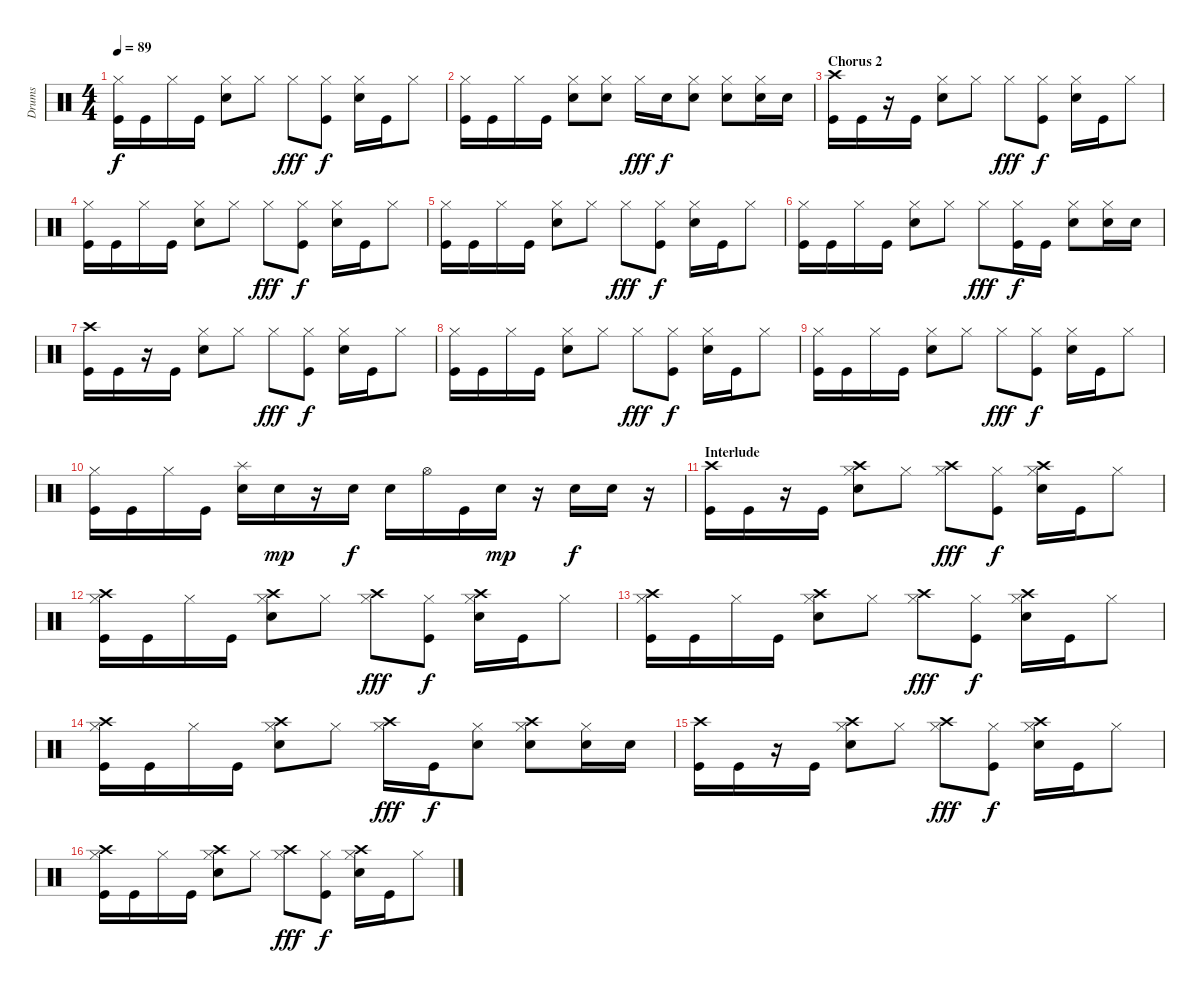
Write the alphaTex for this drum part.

\track ("Drums" "Drums") {instrument percussion}
\staff {score}
\articulation defaults
\ts (4 4)
\tempo 89
\clef neutral
\ks c
("Hi-Hat (closed)" "Kick (hit)").16{dy f} "Kick (hit)".16 "Hi-Hat (closed)".16 "Kick (hit)".16 ("Hi-Hat (closed)" "Snare (hit) 2").8 "Hi-Hat (closed)".8 "Hi-Hat (closed)".8{dy fff} ("Hi-Hat (closed)" "Kick (hit)").8{dy f} ("Hi-Hat (closed)" "Snare (hit) 2").16 "Kick (hit)".16 "Hi-Hat (closed)".8 |
("Hi-Hat (closed)" "Kick (hit)").16 "Kick (hit)".16 "Hi-Hat (closed)".16 "Kick (hit)".16 ("Hi-Hat (closed)" "Snare (hit) 2").8 ("Hi-Hat (closed)" "Snare (hit) 2").8 "Hi-Hat (closed)".16{dy fff} "Snare (hit) 2".16{dy f} ("Hi-Hat (closed)" "Snare (hit) 2").8 ("Hi-Hat (closed)" "Snare (hit) 2").8 ("Hi-Hat (closed)" "Snare (hit) 2").16 "Snare (hit) 2".16 |
\section ("" "Chorus 2")
("Crash high (hit)" "Kick (hit)").16 "Kick (hit)".16 r.16 "Kick (hit)".16 ("Hi-Hat (closed)" "Snare (hit) 2").8 "Hi-Hat (closed)".8 "Hi-Hat (closed)".8{dy fff} ("Hi-Hat (closed)" "Kick (hit)").8{dy f} ("Hi-Hat (closed)" "Snare (hit) 2").16 "Kick (hit)".16 "Hi-Hat (closed)".8 |
("Hi-Hat (closed)" "Kick (hit)").16 "Kick (hit)".16 "Hi-Hat (closed)".16 "Kick (hit)".16 ("Hi-Hat (closed)" "Snare (hit) 2").8 "Hi-Hat (closed)".8 "Hi-Hat (closed)".8{dy fff} ("Hi-Hat (closed)" "Kick (hit)").8{dy f} ("Hi-Hat (closed)" "Snare (hit) 2").16 "Kick (hit)".16 "Hi-Hat (closed)".8 |
("Hi-Hat (closed)" "Kick (hit)").16 "Kick (hit)".16 "Hi-Hat (closed)".16 "Kick (hit)".16 ("Hi-Hat (closed)" "Snare (hit) 2").8 "Hi-Hat (closed)".8 "Hi-Hat (closed)".8{dy fff} ("Hi-Hat (closed)" "Kick (hit)").8{dy f} ("Hi-Hat (closed)" "Snare (hit) 2").16 "Kick (hit)".16 "Hi-Hat (closed)".8 |
("Hi-Hat (closed)" "Kick (hit)").16 "Kick (hit)".16 "Hi-Hat (closed)".16 "Kick (hit)".16 ("Hi-Hat (closed)" "Snare (hit) 2").8 "Hi-Hat (closed)".8 "Hi-Hat (closed)".8{dy fff} ("Hi-Hat (closed)" "Kick (hit)").16{dy f} "Kick (hit)".16 ("Hi-Hat (closed)" "Snare (hit) 2").8 ("Hi-Hat (closed)" "Snare (hit) 2").16 "Snare (hit) 2".16 |
("Crash high (hit)" "Kick (hit)").16 "Kick (hit)".16 r.16 "Kick (hit)".16 ("Hi-Hat (closed)" "Snare (hit) 2").8 "Hi-Hat (closed)".8 "Hi-Hat (closed)".8{dy fff} ("Hi-Hat (closed)" "Kick (hit)").8{dy f} ("Hi-Hat (closed)" "Snare (hit) 2").16 "Kick (hit)".16 "Hi-Hat (closed)".8 |
("Hi-Hat (closed)" "Kick (hit)").16 "Kick (hit)".16 "Hi-Hat (closed)".16 "Kick (hit)".16 ("Hi-Hat (closed)" "Snare (hit) 2").8 "Hi-Hat (closed)".8 "Hi-Hat (closed)".8{dy fff} ("Hi-Hat (closed)" "Kick (hit)").8{dy f} ("Hi-Hat (closed)" "Snare (hit) 2").16 "Kick (hit)".16 "Hi-Hat (closed)".8 |
("Hi-Hat (closed)" "Kick (hit)").16 "Kick (hit)".16 "Hi-Hat (closed)".16 "Kick (hit)".16 ("Hi-Hat (closed)" "Snare (hit) 2").8 "Hi-Hat (closed)".8 "Hi-Hat (closed)".8{dy fff} ("Hi-Hat (closed)" "Kick (hit)").8{dy f} ("Hi-Hat (closed)" "Snare (hit) 2").16 "Kick (hit)".16 "Hi-Hat (closed)".8 |
("Hi-Hat (closed)" "Kick (hit)").16 "Kick (hit)".16 "Hi-Hat (closed)".16 "Kick (hit)".16 ("Splash (hit)" "Snare (hit) 2").16 "Snare (hit) 2".16{dy mp} r.16 "Snare (hit) 2".16{dy f} "Snare (hit) 2".16 "Hi-Hat (open)".16 "Kick (hit)".16 "Snare (hit) 2".16{dy mp} r.16 "Snare (hit) 2".16{dy f} "Snare (hit) 2".16 r.16 |
\section ("" "Interlude")
("Crash high (hit)" "Kick (hit)").16 "Kick (hit)".16 r.16 "Kick (hit)".16 ("Hi-Hat (closed)" "Crash high (hit)" "Snare (hit) 2").8 "Hi-Hat (closed)".8 ("Hi-Hat (closed)" "Crash high (hit)").8{dy fff} ("Hi-Hat (closed)" "Kick (hit)").8{dy f} ("Hi-Hat (closed)" "Crash high (hit)" "Snare (hit) 2").16 "Kick (hit)".16 "Hi-Hat (closed)".8 |
("Hi-Hat (closed)" "Crash high (hit)" "Kick (hit)").16 "Kick (hit)".16 "Hi-Hat (closed)".16 "Kick (hit)".16 ("Hi-Hat (closed)" "Crash high (hit)" "Snare (hit) 2").8 "Hi-Hat (closed)".8 ("Hi-Hat (closed)" "Crash high (hit)").8{dy fff} ("Hi-Hat (closed)" "Kick (hit)").8{dy f} ("Hi-Hat (closed)" "Crash high (hit)" "Snare (hit) 2").16 "Kick (hit)".16 "Hi-Hat (closed)".8 |
("Hi-Hat (closed)" "Crash high (hit)" "Kick (hit)").16 "Kick (hit)".16 "Hi-Hat (closed)".16 "Kick (hit)".16 ("Hi-Hat (closed)" "Crash high (hit)" "Snare (hit) 2").8 "Hi-Hat (closed)".8 ("Hi-Hat (closed)" "Crash high (hit)").8{dy fff} ("Hi-Hat (closed)" "Kick (hit)").8{dy f} ("Hi-Hat (closed)" "Crash high (hit)" "Snare (hit) 2").16 "Kick (hit)".16 "Hi-Hat (closed)".8 |
("Hi-Hat (closed)" "Crash high (hit)" "Kick (hit)").16 "Kick (hit)".16 "Hi-Hat (closed)".16 "Kick (hit)".16 ("Hi-Hat (closed)" "Crash high (hit)" "Snare (hit) 2").8 "Hi-Hat (closed)".8 ("Hi-Hat (closed)" "Crash high (hit)").16{dy fff} "Kick (hit)".16{dy f} ("Hi-Hat (closed)" "Snare (hit) 2").8 ("Hi-Hat (closed)" "Crash high (hit)" "Snare (hit) 2").8 ("Hi-Hat (closed)" "Snare (hit) 2").16 "Snare (hit) 2".16 |
("Crash high (hit)" "Kick (hit)").16 "Kick (hit)".16 r.16 "Kick (hit)".16 ("Hi-Hat (closed)" "Crash high (hit)" "Snare (hit) 2").8 "Hi-Hat (closed)".8 ("Hi-Hat (closed)" "Crash high (hit)").8{dy fff} ("Hi-Hat (closed)" "Kick (hit)").8{dy f} ("Hi-Hat (closed)" "Crash high (hit)" "Snare (hit) 2").16 "Kick (hit)".16 "Hi-Hat (closed)".8 |
("Hi-Hat (closed)" "Crash high (hit)" "Kick (hit)").16 "Kick (hit)".16 "Hi-Hat (closed)".16 "Kick (hit)".16 ("Hi-Hat (closed)" "Crash high (hit)" "Snare (hit) 2").8 "Hi-Hat (closed)".8 ("Hi-Hat (closed)" "Crash high (hit)").8{dy fff} ("Hi-Hat (closed)" "Kick (hit)").8{dy f} ("Hi-Hat (closed)" "Crash high (hit)" "Snare (hit) 2").16 "Kick (hit)".16 "Hi-Hat (closed)".8
